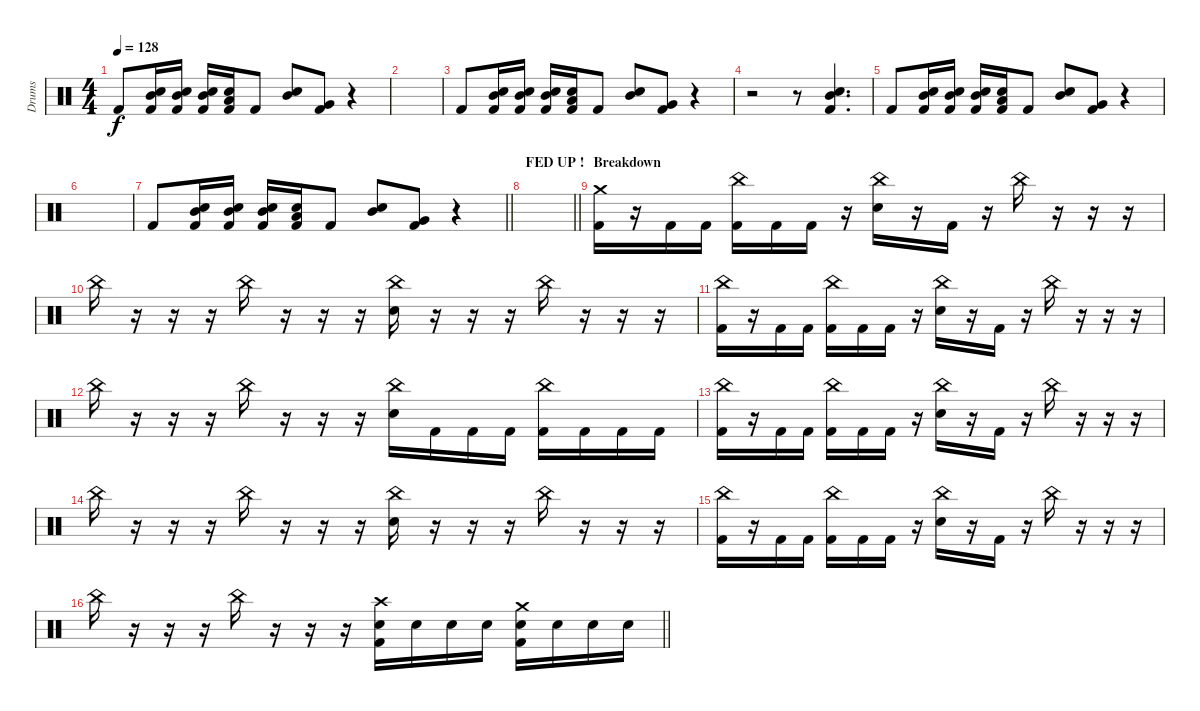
\track ("Drums" "Drums") {instrument percussion}
\staff {score}
\articulation defaults
\ts (4 4)
\tempo 128
\clef neutral
\ks c "Kick (hit) 2".8{dy f}
("Electric Snare (hit)" "Mid Tom (hit)" "Kick (hit) 2").16 ("Electric Snare (hit)" "Mid Tom (hit)" "Kick (hit) 2").16 ("Electric Snare (hit)" "Mid Tom (hit)" "Kick (hit) 2").16 ("Electric Snare (hit)" "Low Tom (hit)" "Kick (hit) 2").16 "Kick (hit) 2".8 ("Electric Snare (hit)" "Mid Tom (hit)").8 ("Very Low Tom (hit)" "Kick (hit) 2").8 r.4 |
|
"Kick (hit) 2".8 ("Electric Snare (hit)" "Mid Tom (hit)" "Kick (hit) 2").16 ("Electric Snare (hit)" "Mid Tom (hit)" "Kick (hit) 2").16 ("Electric Snare (hit)" "Mid Tom (hit)" "Kick (hit) 2").16 ("Electric Snare (hit)" "Low Tom (hit)" "Kick (hit) 2").16 "Kick (hit) 2".8 ("Electric Snare (hit)" "Mid Tom (hit)").8 ("Very Low Tom (hit)" "Kick (hit) 2").8 r.4 |
r.2 r.8 ("Electric Snare (hit)" "Mid Tom (hit)" "Kick (hit) 2").4{d} |
"Kick (hit) 2".8 ("Electric Snare (hit)" "Mid Tom (hit)" "Kick (hit) 2").16 ("Electric Snare (hit)" "Mid Tom (hit)" "Kick (hit) 2").16 ("Electric Snare (hit)" "Mid Tom (hit)" "Kick (hit) 2").16 ("Electric Snare (hit)" "Low Tom (hit)" "Kick (hit) 2").16 "Kick (hit) 2".8 ("Electric Snare (hit)" "Mid Tom (hit)").8 ("Very Low Tom (hit)" "Kick (hit) 2").8 r.4 |
|
\barLineRight lightlight "Kick (hit) 2".8
("Electric Snare (hit)" "Mid Tom (hit)" "Kick (hit) 2").16 ("Electric Snare (hit)" "Mid Tom (hit)" "Kick (hit) 2").16 ("Electric Snare (hit)" "Mid Tom (hit)" "Kick (hit) 2").16 ("Electric Snare (hit)" "Low Tom (hit)" "Kick (hit) 2").16 "Kick (hit) 2".8 ("Electric Snare (hit)" "Mid Tom (hit)").8 ("Very Low Tom (hit)" "Kick (hit) 2").8 r.4 |
\section ("" "FED UP !")
\barLineRight lightlight
|
\section ("" "Breakdown")
("Crash medium (hit)" "Kick (hit) 2").16 r.16 "Kick (hit) 2".16 "Kick (hit) 2".16 ("China (hit)" "Kick (hit) 2").16 "Kick (hit) 2".16 "Kick (hit) 2".16 r.16 ("China (hit)" "Electric Snare (hit)").16 r.16 "Kick (hit) 2".16 r.16 "China (hit)".16 r.16 r.16 r.16 |
"China (hit)".16 r.16 r.16 r.16 "China (hit)".16 r.16 r.16 r.16 ("China (hit)" "Electric Snare (hit)").16 r.16 r.16 r.16 "China (hit)".16 r.16 r.16 r.16 |
("China (hit)" "Kick (hit) 2").16 r.16 "Kick (hit) 2".16 "Kick (hit) 2".16 ("China (hit)" "Kick (hit) 2").16 "Kick (hit) 2".16 "Kick (hit) 2".16 r.16 ("China (hit)" "Electric Snare (hit)").16 r.16 "Kick (hit) 2".16 r.16 "China (hit)".16 r.16 r.16 r.16 |
"China (hit)".16 r.16 r.16 r.16 "China (hit)".16 r.16 r.16 r.16 ("China (hit)" "Electric Snare (hit)").16 "Kick (hit) 2".16 "Kick (hit) 2".16 "Kick (hit) 2".16 ("China (hit)" "Kick (hit) 2").16 "Kick (hit) 2".16 "Kick (hit) 2".16 "Kick (hit) 2".16 |
("China (hit)" "Kick (hit) 2").16 r.16 "Kick (hit) 2".16 "Kick (hit) 2".16 ("China (hit)" "Kick (hit) 2").16 "Kick (hit) 2".16 "Kick (hit) 2".16 r.16 ("China (hit)" "Electric Snare (hit)").16 r.16 "Kick (hit) 2".16 r.16 "China (hit)".16 r.16 r.16 r.16 |
"China (hit)".16 r.16 r.16 r.16 "China (hit)".16 r.16 r.16 r.16 ("China (hit)" "Electric Snare (hit)").16 r.16 r.16 r.16 "China (hit)".16 r.16 r.16 r.16 |
("China (hit)" "Kick (hit) 2").16 r.16 "Kick (hit) 2".16 "Kick (hit) 2".16 ("China (hit)" "Kick (hit) 2").16 "Kick (hit) 2".16 "Kick (hit) 2".16 r.16 ("China (hit)" "Electric Snare (hit)").16 r.16 "Kick (hit) 2".16 r.16 "China (hit)".16 r.16 r.16 r.16 |
\barLineRight lightlight "China (hit)".16
r.16 r.16 r.16 "China (hit)".16 r.16 r.16 r.16 ("Crash high (hit)" "Electric Snare (hit)" "Kick (hit) 2").16 "Electric Snare (hit)".16 "Electric Snare (hit)".16 "Electric Snare (hit)".16 ("Crash medium (hit)" "Electric Snare (hit)" "Kick (hit) 2").16 "Electric Snare (hit)".16 "Electric Snare (hit)".16 "Electric Snare (hit)".16
